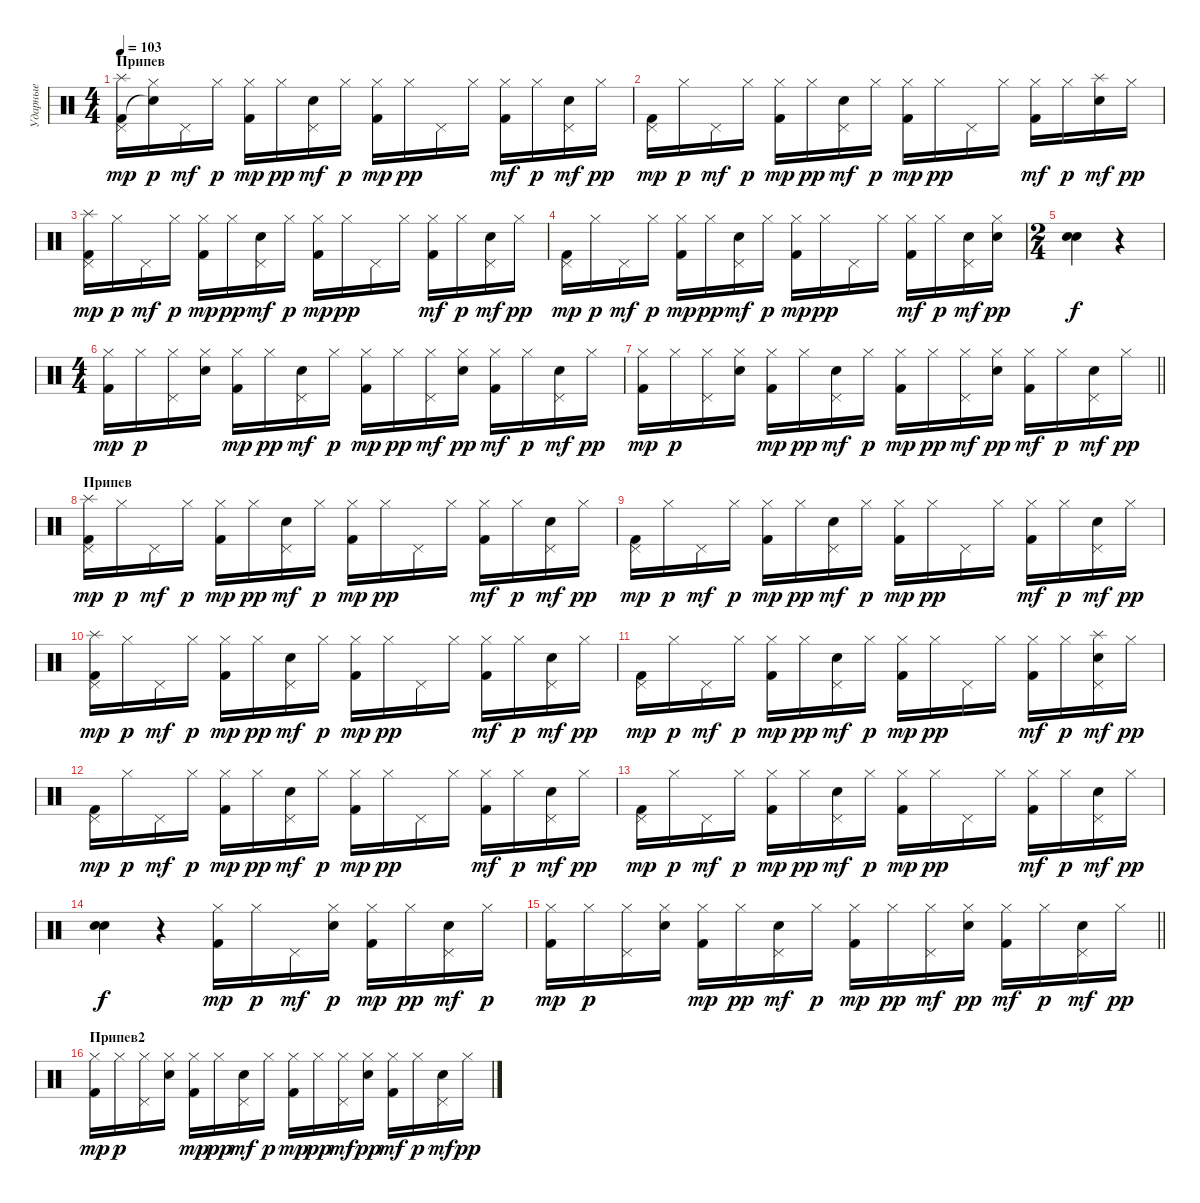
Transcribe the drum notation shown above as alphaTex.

\track ("Ударные" "Ударные") {instrument percussion}
\staff {score}
\articulation defaults
\ts (4 4)
\section ("" "Припев")
\tempo 103
\clef neutral
\ks c
("Pedal Hi-Hat (hit)" "Kick (hit) 2" "Splash (hit)").16{dy mp} ("Hi-Hat (closed)" "Snare (hit)"{t}).16{dy p} "Pedal Hi-Hat (hit)".16{dy mf} "Hi-Hat (closed)".16{dy p} ("Kick (hit) 2" "Hi-Hat (closed)").16{dy mp} "Hi-Hat (closed)".16{dy pp} ("Electric Snare (hit)" "Pedal Hi-Hat (hit)").16{dy mf} "Hi-Hat (closed)".16{dy p} ("Hi-Hat (closed)" "Kick (hit) 2").16{dy mp} "Hi-Hat (closed)".16{dy pp} "Pedal Hi-Hat (hit)".16 "Hi-Hat (closed)".16 ("Hi-Hat (closed)" "Kick (hit) 2").16{dy mf} "Hi-Hat (closed)".16{dy p} ("Electric Snare (hit)" "Pedal Hi-Hat (hit)").16{dy mf} "Hi-Hat (closed)".16{dy pp} |
("Pedal Hi-Hat (hit)" "Kick (hit) 2").16{dy mp} "Hi-Hat (closed)".16{dy p} "Pedal Hi-Hat (hit)".16{dy mf} "Hi-Hat (closed)".16{dy p} ("Kick (hit) 2" "Hi-Hat (closed)").16{dy mp} "Hi-Hat (closed)".16{dy pp} ("Electric Snare (hit)" "Pedal Hi-Hat (hit)").16{dy mf} "Hi-Hat (closed)".16{dy p} ("Hi-Hat (closed)" "Kick (hit) 2").16{dy mp} "Hi-Hat (closed)".16{dy pp} "Pedal Hi-Hat (hit)".16 "Hi-Hat (closed)".16 ("Hi-Hat (closed)" "Kick (hit) 2").16{dy mf} "Hi-Hat (closed)".16{dy p} ("Electric Snare (hit)" "Splash (hit)").16{dy mf} "Hi-Hat (closed)".16{dy pp} |
("Pedal Hi-Hat (hit)" "Kick (hit) 2" "Splash (hit)").16{dy mp} "Hi-Hat (closed)".16{dy p} "Pedal Hi-Hat (hit)".16{dy mf} "Hi-Hat (closed)".16{dy p} ("Kick (hit) 2" "Hi-Hat (closed)").16{dy mp} "Hi-Hat (closed)".16{dy pp} ("Electric Snare (hit)" "Pedal Hi-Hat (hit)").16{dy mf} "Hi-Hat (closed)".16{dy p} ("Hi-Hat (closed)" "Kick (hit) 2").16{dy mp} "Hi-Hat (closed)".16{dy pp} "Pedal Hi-Hat (hit)".16 "Hi-Hat (closed)".16 ("Hi-Hat (closed)" "Kick (hit) 2").16{dy mf} "Hi-Hat (closed)".16{dy p} ("Electric Snare (hit)" "Pedal Hi-Hat (hit)").16{dy mf} "Hi-Hat (closed)".16{dy pp} |
("Pedal Hi-Hat (hit)" "Kick (hit) 2").16{dy mp} "Hi-Hat (closed)".16{dy p} "Pedal Hi-Hat (hit)".16{dy mf} "Hi-Hat (closed)".16{dy p} ("Kick (hit) 2" "Hi-Hat (closed)").16{dy mp} "Hi-Hat (closed)".16{dy pp} ("Electric Snare (hit)" "Pedal Hi-Hat (hit)").16{dy mf} "Hi-Hat (closed)".16{dy p} ("Hi-Hat (closed)" "Kick (hit) 2").16{dy mp} "Hi-Hat (closed)".16{dy pp} "Pedal Hi-Hat (hit)".16 "Hi-Hat (closed)".16 ("Hi-Hat (closed)" "Kick (hit) 2").16{dy mf} "Hi-Hat (closed)".16{dy p} ("Electric Snare (hit)" "Pedal Hi-Hat (hit)").16{dy mf} ("Hi-Hat (closed)" "Electric Snare (hit)").16{dy pp} |
\ts (2 4)
("Electric Snare (hit)" "Electric Snare (hit)").4{dy f} r.4 |
\ts (4 4)
("Hi-Hat (closed)" "Kick (hit) 2").16{dy mp} "Hi-Hat (closed)".16{dy p} ("Pedal Hi-Hat (hit)" "Hi-Hat (closed)").16 ("Electric Snare (hit)" "Hi-Hat (closed)").16 ("Kick (hit) 2" "Hi-Hat (closed)").16{dy mp} "Hi-Hat (closed)".16{dy pp} ("Electric Snare (hit)" "Pedal Hi-Hat (hit)").16{dy mf} "Hi-Hat (closed)".16{dy p} ("Hi-Hat (closed)" "Kick (hit) 2").16{dy mp} "Hi-Hat (closed)".16{dy pp} ("Hi-Hat (closed)" "Pedal Hi-Hat (hit)").16{dy mf} ("Electric Snare (hit)" "Hi-Hat (closed)").16{dy pp} ("Hi-Hat (closed)" "Kick (hit) 2").16{dy mf} "Hi-Hat (closed)".16{dy p} ("Electric Snare (hit)" "Pedal Hi-Hat (hit)").16{dy mf} "Hi-Hat (closed)".16{dy pp} |
\barLineRight lightlight
("Hi-Hat (closed)" "Kick (hit) 2").16{dy mp} "Hi-Hat (closed)".16{dy p} ("Pedal Hi-Hat (hit)" "Hi-Hat (closed)").16 ("Electric Snare (hit)" "Hi-Hat (closed)").16 ("Kick (hit) 2" "Hi-Hat (closed)").16{dy mp} "Hi-Hat (closed)".16{dy pp} ("Electric Snare (hit)" "Pedal Hi-Hat (hit)").16{dy mf} "Hi-Hat (closed)".16{dy p} ("Hi-Hat (closed)" "Kick (hit) 2").16{dy mp} "Hi-Hat (closed)".16{dy pp} ("Hi-Hat (closed)" "Pedal Hi-Hat (hit)").16{dy mf} ("Electric Snare (hit)" "Hi-Hat (closed)").16{dy pp} ("Hi-Hat (closed)" "Kick (hit) 2").16{dy mf} "Hi-Hat (closed)".16{dy p} ("Electric Snare (hit)" "Pedal Hi-Hat (hit)").16{dy mf} "Hi-Hat (closed)".16{dy pp} |
\section ("" "Припев")
("Pedal Hi-Hat (hit)" "Kick (hit) 2" "Splash (hit)").16{dy mp} "Hi-Hat (closed)".16{dy p} "Pedal Hi-Hat (hit)".16{dy mf} "Hi-Hat (closed)".16{dy p} ("Kick (hit) 2" "Hi-Hat (closed)").16{dy mp} "Hi-Hat (closed)".16{dy pp} ("Electric Snare (hit)" "Pedal Hi-Hat (hit)").16{dy mf} "Hi-Hat (closed)".16{dy p} ("Hi-Hat (closed)" "Kick (hit) 2").16{dy mp} "Hi-Hat (closed)".16{dy pp} "Pedal Hi-Hat (hit)".16 "Hi-Hat (closed)".16 ("Hi-Hat (closed)" "Kick (hit) 2").16{dy mf} "Hi-Hat (closed)".16{dy p} ("Electric Snare (hit)" "Pedal Hi-Hat (hit)").16{dy mf} "Hi-Hat (closed)".16{dy pp} |
("Pedal Hi-Hat (hit)" "Kick (hit) 2").16{dy mp} "Hi-Hat (closed)".16{dy p} "Pedal Hi-Hat (hit)".16{dy mf} "Hi-Hat (closed)".16{dy p} ("Kick (hit) 2" "Hi-Hat (closed)").16{dy mp} "Hi-Hat (closed)".16{dy pp} ("Electric Snare (hit)" "Pedal Hi-Hat (hit)").16{dy mf} "Hi-Hat (closed)".16{dy p} ("Hi-Hat (closed)" "Kick (hit) 2").16{dy mp} "Hi-Hat (closed)".16{dy pp} "Pedal Hi-Hat (hit)".16 "Hi-Hat (closed)".16 ("Hi-Hat (closed)" "Kick (hit) 2").16{dy mf} "Hi-Hat (closed)".16{dy p} ("Electric Snare (hit)" "Pedal Hi-Hat (hit)").16{dy mf} "Hi-Hat (closed)".16{dy pp} |
("Pedal Hi-Hat (hit)" "Kick (hit) 2" "Splash (hit)").16{dy mp} "Hi-Hat (closed)".16{dy p} "Pedal Hi-Hat (hit)".16{dy mf} "Hi-Hat (closed)".16{dy p} ("Kick (hit) 2" "Hi-Hat (closed)").16{dy mp} "Hi-Hat (closed)".16{dy pp} ("Electric Snare (hit)" "Pedal Hi-Hat (hit)").16{dy mf} "Hi-Hat (closed)".16{dy p} ("Hi-Hat (closed)" "Kick (hit) 2").16{dy mp} "Hi-Hat (closed)".16{dy pp} "Pedal Hi-Hat (hit)".16 "Hi-Hat (closed)".16 ("Hi-Hat (closed)" "Kick (hit) 2").16{dy mf} "Hi-Hat (closed)".16{dy p} ("Electric Snare (hit)" "Pedal Hi-Hat (hit)").16{dy mf} "Hi-Hat (closed)".16{dy pp} |
("Pedal Hi-Hat (hit)" "Kick (hit) 2").16{dy mp} "Hi-Hat (closed)".16{dy p} "Pedal Hi-Hat (hit)".16{dy mf} "Hi-Hat (closed)".16{dy p} ("Kick (hit) 2" "Hi-Hat (closed)").16{dy mp} "Hi-Hat (closed)".16{dy pp} ("Electric Snare (hit)" "Pedal Hi-Hat (hit)").16{dy mf} "Hi-Hat (closed)".16{dy p} ("Hi-Hat (closed)" "Kick (hit) 2").16{dy mp} "Hi-Hat (closed)".16{dy pp} "Pedal Hi-Hat (hit)".16 "Hi-Hat (closed)".16 ("Hi-Hat (closed)" "Kick (hit) 2").16{dy mf} "Hi-Hat (closed)".16{dy p} ("Electric Snare (hit)" "Pedal Hi-Hat (hit)" "Splash (hit)").16{dy mf} "Hi-Hat (closed)".16{dy pp} |
("Pedal Hi-Hat (hit)" "Kick (hit) 2").16{dy mp} "Hi-Hat (closed)".16{dy p} "Pedal Hi-Hat (hit)".16{dy mf} "Hi-Hat (closed)".16{dy p} ("Kick (hit) 2" "Hi-Hat (closed)").16{dy mp} "Hi-Hat (closed)".16{dy pp} ("Electric Snare (hit)" "Pedal Hi-Hat (hit)").16{dy mf} "Hi-Hat (closed)".16{dy p} ("Hi-Hat (closed)" "Kick (hit) 2").16{dy mp} "Hi-Hat (closed)".16{dy pp} "Pedal Hi-Hat (hit)".16 "Hi-Hat (closed)".16 ("Hi-Hat (closed)" "Kick (hit) 2").16{dy mf} "Hi-Hat (closed)".16{dy p} ("Electric Snare (hit)" "Pedal Hi-Hat (hit)").16{dy mf} "Hi-Hat (closed)".16{dy pp} |
("Pedal Hi-Hat (hit)" "Kick (hit) 2").16{dy mp} "Hi-Hat (closed)".16{dy p} "Pedal Hi-Hat (hit)".16{dy mf} "Hi-Hat (closed)".16{dy p} ("Kick (hit) 2" "Hi-Hat (closed)").16{dy mp} "Hi-Hat (closed)".16{dy pp} ("Electric Snare (hit)" "Pedal Hi-Hat (hit)").16{dy mf} "Hi-Hat (closed)".16{dy p} ("Hi-Hat (closed)" "Kick (hit) 2").16{dy mp} "Hi-Hat (closed)".16{dy pp} "Pedal Hi-Hat (hit)".16 "Hi-Hat (closed)".16 ("Hi-Hat (closed)" "Kick (hit) 2").16{dy mf} "Hi-Hat (closed)".16{dy p} ("Electric Snare (hit)" "Pedal Hi-Hat (hit)").16{dy mf} "Hi-Hat (closed)".16{dy pp} |
("Electric Snare (hit)" "Electric Snare (hit)").4{dy f} r.4 ("Hi-Hat (closed)" "Kick (hit) 2").16{dy mp} "Hi-Hat (closed)".16{dy p} "Pedal Hi-Hat (hit)".16{dy mf} ("Electric Snare (hit)" "Hi-Hat (closed)").16{dy p} ("Kick (hit) 2" "Hi-Hat (closed)").16{dy mp} "Hi-Hat (closed)".16{dy pp} ("Electric Snare (hit)" "Pedal Hi-Hat (hit)").16{dy mf} "Hi-Hat (closed)".16{dy p} |
\barLineRight lightlight
("Hi-Hat (closed)" "Kick (hit) 2").16{dy mp} "Hi-Hat (closed)".16{dy p} ("Pedal Hi-Hat (hit)" "Hi-Hat (closed)").16 ("Electric Snare (hit)" "Hi-Hat (closed)").16 ("Kick (hit) 2" "Hi-Hat (closed)").16{dy mp} "Hi-Hat (closed)".16{dy pp} ("Electric Snare (hit)" "Pedal Hi-Hat (hit)").16{dy mf} "Hi-Hat (closed)".16{dy p} ("Hi-Hat (closed)" "Kick (hit) 2").16{dy mp} "Hi-Hat (closed)".16{dy pp} ("Hi-Hat (closed)" "Pedal Hi-Hat (hit)").16{dy mf} ("Electric Snare (hit)" "Hi-Hat (closed)").16{dy pp} ("Hi-Hat (closed)" "Kick (hit) 2").16{dy mf} "Hi-Hat (closed)".16{dy p} ("Electric Snare (hit)" "Pedal Hi-Hat (hit)").16{dy mf} "Hi-Hat (closed)".16{dy pp} |
\section ("" "Припев2")
("Hi-Hat (closed)" "Kick (hit) 2").16{dy mp} "Hi-Hat (closed)".16{dy p} ("Pedal Hi-Hat (hit)" "Hi-Hat (closed)").16 ("Electric Snare (hit)" "Hi-Hat (closed)").16 ("Kick (hit) 2" "Hi-Hat (closed)").16{dy mp} "Hi-Hat (closed)".16{dy pp} ("Electric Snare (hit)" "Pedal Hi-Hat (hit)").16{dy mf} "Hi-Hat (closed)".16{dy p} ("Hi-Hat (closed)" "Kick (hit) 2").16{dy mp} "Hi-Hat (closed)".16{dy pp} ("Hi-Hat (closed)" "Pedal Hi-Hat (hit)").16{dy mf} ("Electric Snare (hit)" "Hi-Hat (closed)").16{dy pp} ("Hi-Hat (closed)" "Kick (hit) 2").16{dy mf} "Hi-Hat (closed)".16{dy p} ("Electric Snare (hit)" "Pedal Hi-Hat (hit)").16{dy mf} "Hi-Hat (closed)".16{dy pp}
